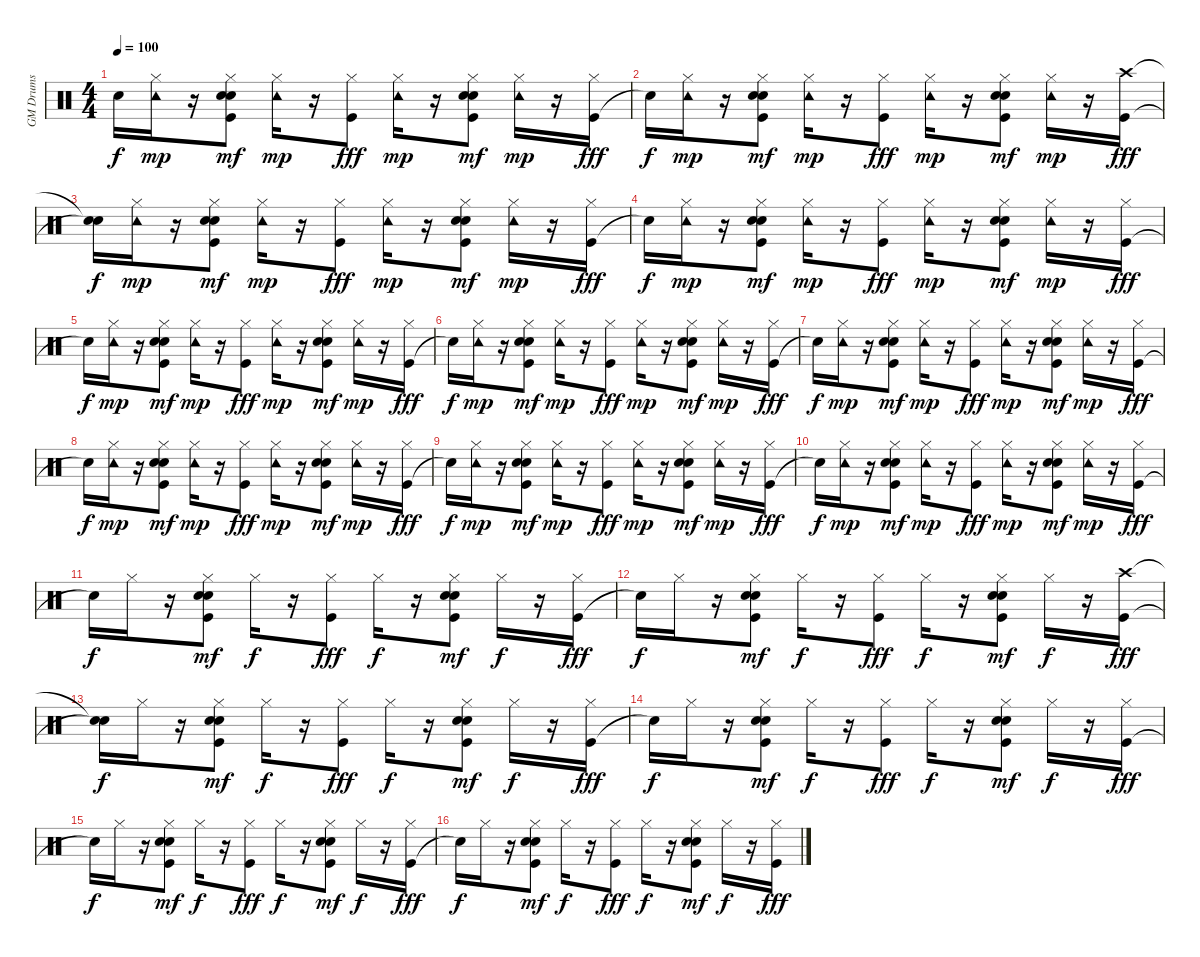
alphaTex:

\track ("GM Drums" "GM Drums") {instrument percussion}
\staff {score}
\articulation defaults
\ts (4 4)
\tempo 100
\clef neutral
\ks c "Snare (hit)"{t}.16{dy f}
("Hi-Hat (closed)" "Tambourine (hit)").16{dy mp} r.16 ("Kick (hit)" "Snare (hit) 2" "Hand Clap (hit)" "Hi-Hat (closed)").8{dy mf} ("Hi-Hat (closed)" "Tambourine (hit)").16{dy mp} r.16 ("Kick (hit)" "Hi-Hat (closed)").8{dy fff} ("Hi-Hat (closed)" "Tambourine (hit)").16{dy mp} r.16 ("Kick (hit)" "Snare (hit) 2" "Hand Clap (hit)" "Hi-Hat (closed)").8{dy mf} ("Hi-Hat (closed)" "Tambourine (hit)").16{dy mp} r.16 ("Kick (hit)" "Hi-Hat (closed)").16{dy fff} |
"Snare (hit)"{t}.16{dy f} ("Hi-Hat (closed)" "Tambourine (hit)").16{dy mp} r.16 ("Kick (hit)" "Snare (hit) 2" "Hand Clap (hit)" "Hi-Hat (closed)").8{dy mf} ("Hi-Hat (closed)" "Tambourine (hit)").16{dy mp} r.16 ("Kick (hit)" "Hi-Hat (closed)").8{dy fff} ("Hi-Hat (closed)" "Tambourine (hit)").16{dy mp} r.16 ("Kick (hit)" "Snare (hit) 2" "Hand Clap (hit)" "Hi-Hat (closed)").8{dy mf} ("Hi-Hat (closed)" "Tambourine (hit)").16{dy mp} r.16 ("Kick (hit)" "Crash high (hit)").16{dy fff} |
("Snare (hit)"{t} "Snare (hit)"{t}).16{dy f} ("Hi-Hat (closed)" "Tambourine (hit)").16{dy mp} r.16 ("Kick (hit)" "Snare (hit) 2" "Hand Clap (hit)" "Hi-Hat (closed)").8{dy mf} ("Hi-Hat (closed)" "Tambourine (hit)").16{dy mp} r.16 ("Kick (hit)" "Hi-Hat (closed)").8{dy fff} ("Hi-Hat (closed)" "Tambourine (hit)").16{dy mp} r.16 ("Kick (hit)" "Snare (hit) 2" "Hand Clap (hit)" "Hi-Hat (closed)").8{dy mf} ("Hi-Hat (closed)" "Tambourine (hit)").16{dy mp} r.16 ("Kick (hit)" "Hi-Hat (closed)").16{dy fff} |
"Snare (hit)"{t}.16{dy f} ("Hi-Hat (closed)" "Tambourine (hit)").16{dy mp} r.16 ("Kick (hit)" "Snare (hit) 2" "Hand Clap (hit)" "Hi-Hat (closed)").8{dy mf} ("Hi-Hat (closed)" "Tambourine (hit)").16{dy mp} r.16 ("Kick (hit)" "Hi-Hat (closed)").8{dy fff} ("Hi-Hat (closed)" "Tambourine (hit)").16{dy mp} r.16 ("Kick (hit)" "Snare (hit) 2" "Hand Clap (hit)" "Hi-Hat (closed)").8{dy mf} ("Hi-Hat (closed)" "Tambourine (hit)").16{dy mp} r.16 ("Kick (hit)" "Hi-Hat (closed)").16{dy fff} |
"Snare (hit)"{t}.16{dy f} ("Hi-Hat (closed)" "Tambourine (hit)").16{dy mp} r.16 ("Kick (hit)" "Snare (hit) 2" "Hand Clap (hit)" "Hi-Hat (closed)").8{dy mf} ("Hi-Hat (closed)" "Tambourine (hit)").16{dy mp} r.16 ("Kick (hit)" "Hi-Hat (closed)").8{dy fff} ("Hi-Hat (closed)" "Tambourine (hit)").16{dy mp} r.16 ("Kick (hit)" "Snare (hit) 2" "Hand Clap (hit)" "Hi-Hat (closed)").8{dy mf} ("Hi-Hat (closed)" "Tambourine (hit)").16{dy mp} r.16 ("Kick (hit)" "Hi-Hat (closed)").16{dy fff} |
"Snare (hit)"{t}.16{dy f} ("Hi-Hat (closed)" "Tambourine (hit)").16{dy mp} r.16 ("Kick (hit)" "Snare (hit) 2" "Hand Clap (hit)" "Hi-Hat (closed)").8{dy mf} ("Hi-Hat (closed)" "Tambourine (hit)").16{dy mp} r.16 ("Kick (hit)" "Hi-Hat (closed)").8{dy fff} ("Hi-Hat (closed)" "Tambourine (hit)").16{dy mp} r.16 ("Kick (hit)" "Snare (hit) 2" "Hand Clap (hit)" "Hi-Hat (closed)").8{dy mf} ("Hi-Hat (closed)" "Tambourine (hit)").16{dy mp} r.16 ("Kick (hit)" "Hi-Hat (closed)").16{dy fff} |
"Snare (hit)"{t}.16{dy f} ("Hi-Hat (closed)" "Tambourine (hit)").16{dy mp} r.16 ("Kick (hit)" "Snare (hit) 2" "Hand Clap (hit)" "Hi-Hat (closed)").8{dy mf} ("Hi-Hat (closed)" "Tambourine (hit)").16{dy mp} r.16 ("Kick (hit)" "Hi-Hat (closed)").8{dy fff} ("Hi-Hat (closed)" "Tambourine (hit)").16{dy mp} r.16 ("Kick (hit)" "Snare (hit) 2" "Hand Clap (hit)" "Hi-Hat (closed)").8{dy mf} ("Hi-Hat (closed)" "Tambourine (hit)").16{dy mp} r.16 ("Kick (hit)" "Hi-Hat (closed)").16{dy fff} |
"Snare (hit)"{t}.16{dy f} ("Hi-Hat (closed)" "Tambourine (hit)").16{dy mp} r.16 ("Kick (hit)" "Snare (hit) 2" "Hand Clap (hit)" "Hi-Hat (closed)").8{dy mf} ("Hi-Hat (closed)" "Tambourine (hit)").16{dy mp} r.16 ("Kick (hit)" "Hi-Hat (closed)").8{dy fff} ("Hi-Hat (closed)" "Tambourine (hit)").16{dy mp} r.16 ("Kick (hit)" "Snare (hit) 2" "Hand Clap (hit)" "Hi-Hat (closed)").8{dy mf} ("Hi-Hat (closed)" "Tambourine (hit)").16{dy mp} r.16 ("Kick (hit)" "Hi-Hat (closed)").16{dy fff} |
"Snare (hit)"{t}.16{dy f} ("Hi-Hat (closed)" "Tambourine (hit)").16{dy mp} r.16 ("Kick (hit)" "Snare (hit) 2" "Hand Clap (hit)" "Hi-Hat (closed)").8{dy mf} ("Hi-Hat (closed)" "Tambourine (hit)").16{dy mp} r.16 ("Kick (hit)" "Hi-Hat (closed)").8{dy fff} ("Hi-Hat (closed)" "Tambourine (hit)").16{dy mp} r.16 ("Kick (hit)" "Snare (hit) 2" "Hand Clap (hit)" "Hi-Hat (closed)").8{dy mf} ("Hi-Hat (closed)" "Tambourine (hit)").16{dy mp} r.16 ("Kick (hit)" "Hi-Hat (closed)").16{dy fff} |
"Snare (hit)"{t}.16{dy f} ("Hi-Hat (closed)" "Tambourine (hit)").16{dy mp} r.16 ("Kick (hit)" "Snare (hit) 2" "Hand Clap (hit)" "Hi-Hat (closed)").8{dy mf} ("Hi-Hat (closed)" "Tambourine (hit)").16{dy mp} r.16 ("Kick (hit)" "Hi-Hat (closed)").8{dy fff} ("Hi-Hat (closed)" "Tambourine (hit)").16{dy mp} r.16 ("Kick (hit)" "Snare (hit) 2" "Hand Clap (hit)" "Hi-Hat (closed)").8{dy mf} ("Hi-Hat (closed)" "Tambourine (hit)").16{dy mp} r.16 ("Kick (hit)" "Hi-Hat (closed)").16{dy fff} |
"Snare (hit)"{t}.16{dy f} "Hi-Hat (closed)".16 r.16 ("Kick (hit)" "Snare (hit) 2" "Hand Clap (hit)" "Hi-Hat (closed)").8{dy mf} "Hi-Hat (closed)".16{dy f} r.16 ("Kick (hit)" "Hi-Hat (closed)").8{dy fff} "Hi-Hat (closed)".16{dy f} r.16 ("Kick (hit)" "Snare (hit) 2" "Hand Clap (hit)" "Hi-Hat (closed)").8{dy mf} "Hi-Hat (closed)".16{dy f} r.16 ("Kick (hit)" "Hi-Hat (closed)").16{dy fff} |
"Snare (hit)"{t}.16{dy f} "Hi-Hat (closed)".16 r.16 ("Kick (hit)" "Snare (hit) 2" "Hand Clap (hit)" "Hi-Hat (closed)").8{dy mf} "Hi-Hat (closed)".16{dy f} r.16 ("Kick (hit)" "Hi-Hat (closed)").8{dy fff} "Hi-Hat (closed)".16{dy f} r.16 ("Kick (hit)" "Snare (hit) 2" "Hand Clap (hit)" "Hi-Hat (closed)").8{dy mf} "Hi-Hat (closed)".16{dy f} r.16 ("Kick (hit)" "Crash high (hit)").16{dy fff} |
("Snare (hit)"{t} "Snare (hit)"{t}).16{dy f} "Hi-Hat (closed)".16 r.16 ("Kick (hit)" "Snare (hit) 2" "Hand Clap (hit)" "Hi-Hat (closed)").8{dy mf} "Hi-Hat (closed)".16{dy f} r.16 ("Kick (hit)" "Hi-Hat (closed)").8{dy fff} "Hi-Hat (closed)".16{dy f} r.16 ("Kick (hit)" "Snare (hit) 2" "Hand Clap (hit)" "Hi-Hat (closed)").8{dy mf} "Hi-Hat (closed)".16{dy f} r.16 ("Kick (hit)" "Hi-Hat (closed)").16{dy fff} |
"Snare (hit)"{t}.16{dy f} "Hi-Hat (closed)".16 r.16 ("Kick (hit)" "Snare (hit) 2" "Hand Clap (hit)" "Hi-Hat (closed)").8{dy mf} "Hi-Hat (closed)".16{dy f} r.16 ("Kick (hit)" "Hi-Hat (closed)").8{dy fff} "Hi-Hat (closed)".16{dy f} r.16 ("Kick (hit)" "Snare (hit) 2" "Hand Clap (hit)" "Hi-Hat (closed)").8{dy mf} "Hi-Hat (closed)".16{dy f} r.16 ("Kick (hit)" "Hi-Hat (closed)").16{dy fff} |
"Snare (hit)"{t}.16{dy f} "Hi-Hat (closed)".16 r.16 ("Kick (hit)" "Snare (hit) 2" "Hand Clap (hit)" "Hi-Hat (closed)").8{dy mf} "Hi-Hat (closed)".16{dy f} r.16 ("Kick (hit)" "Hi-Hat (closed)").8{dy fff} "Hi-Hat (closed)".16{dy f} r.16 ("Kick (hit)" "Snare (hit) 2" "Hand Clap (hit)" "Hi-Hat (closed)").8{dy mf} "Hi-Hat (closed)".16{dy f} r.16 ("Kick (hit)" "Hi-Hat (closed)").16{dy fff} |
"Snare (hit)"{t}.16{dy f} "Hi-Hat (closed)".16 r.16 ("Kick (hit)" "Snare (hit) 2" "Hand Clap (hit)" "Hi-Hat (closed)").8{dy mf} "Hi-Hat (closed)".16{dy f} r.16 ("Kick (hit)" "Hi-Hat (closed)").8{dy fff} "Hi-Hat (closed)".16{dy f} r.16 ("Kick (hit)" "Snare (hit) 2" "Hand Clap (hit)" "Hi-Hat (closed)").8{dy mf} "Hi-Hat (closed)".16{dy f} r.16 ("Kick (hit)" "Hi-Hat (closed)").16{dy fff}
